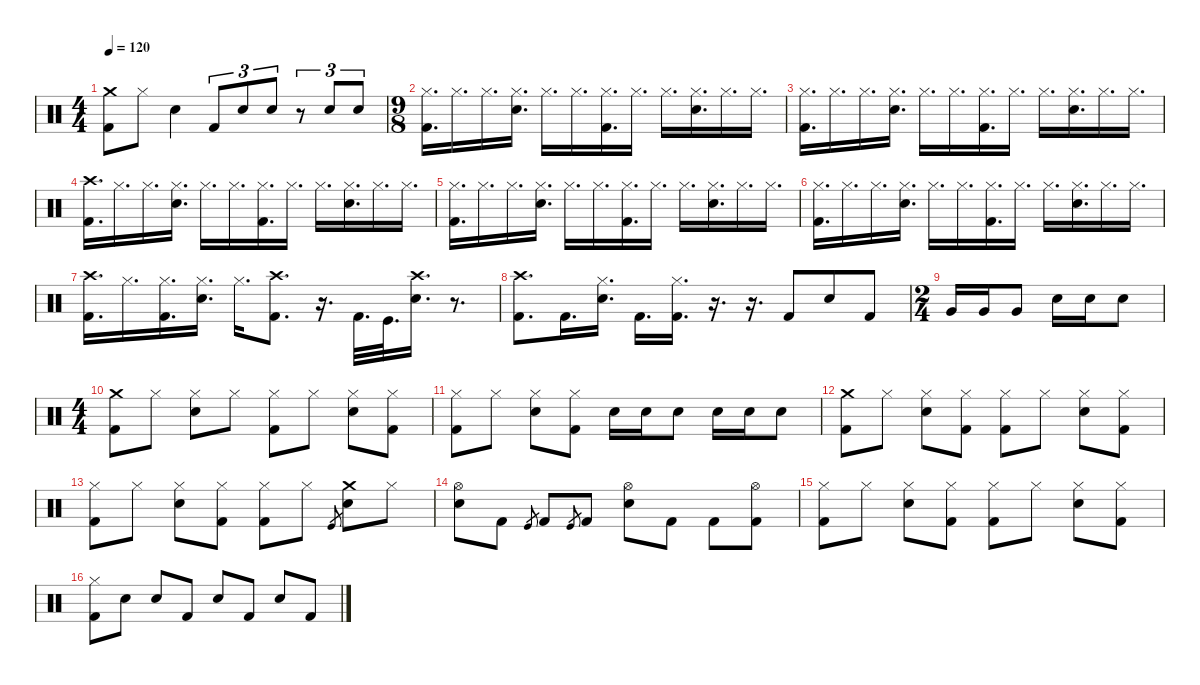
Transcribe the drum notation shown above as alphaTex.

\defaultSystemsLayout 4
\hideDynamics
\bracketExtendMode nobrackets
\singleTrackTrackNamePolicy hidden
\multiTrackTrackNamePolicy hidden
\otherSystemsTrackNameOrientation horizontal
\track ("Ulrich" "drm.") {instrument percussion}
\staff {score}
\articulation defaults
\ts (4 4)
\tempo 120
\clef neutral
\ks c
("Crash medium (hit)" "Kick (hit) 2").8{dy f beam Down} "Hi-Hat (closed)".8{beam Down} "Snare (hit) 2".4{beam Down} "Kick (hit) 2".8{tu (3 2) beam Up} "Snare (hit) 2".8{tu (3 2) beam Up} "Snare (hit) 2".8{tu (3 2) beam Up} r.8{tu (3 2) beam Up} "Snare (hit) 2".8{tu (3 2) beam Down} "Snare (hit) 2".8{tu (3 2) beam Down} |
\ts (9 8)
("Hi-Hat (closed)" "Kick (hit) 2").16{d beam Down} "Hi-Hat (closed)".16{d beam Down} "Hi-Hat (closed)".16{d beam Down} ("Hi-Hat (closed)" "Snare (hit) 2").16{d beam Down} "Hi-Hat (closed)".16{d beam Down} "Hi-Hat (closed)".16{d beam Down} ("Hi-Hat (closed)" "Kick (hit) 2").16{d beam Down} "Hi-Hat (closed)".16{d beam Down} "Hi-Hat (closed)".16{d beam Down} ("Hi-Hat (closed)" "Snare (hit) 2").16{d beam Down} "Hi-Hat (closed)".16{d beam Down} "Hi-Hat (closed)".16{d beam Down} |
("Hi-Hat (closed)" "Kick (hit) 2").16{d beam Down} "Hi-Hat (closed)".16{d beam Down} "Hi-Hat (closed)".16{d beam Down} ("Hi-Hat (closed)" "Snare (hit) 2").16{d beam Down} "Hi-Hat (closed)".16{d beam Down} "Hi-Hat (closed)".16{d beam Down} ("Hi-Hat (closed)" "Kick (hit) 2").16{d beam Down} "Hi-Hat (closed)".16{d beam Down} "Hi-Hat (closed)".16{d beam Down} ("Hi-Hat (closed)" "Snare (hit) 2").16{d beam Down} "Hi-Hat (closed)".16{d beam Down} "Hi-Hat (closed)".16{d beam Down} |
("Crash high (hit)" "Kick (hit) 2").16{d beam Down} "Hi-Hat (closed)".16{d beam Down} "Hi-Hat (closed)".16{d beam Down} ("Hi-Hat (closed)" "Snare (hit) 2").16{d beam Down} "Hi-Hat (closed)".16{d beam Down} "Hi-Hat (closed)".16{d beam Down} ("Hi-Hat (closed)" "Kick (hit) 2").16{d beam Down} "Hi-Hat (closed)".16{d beam Down} "Hi-Hat (closed)".16{d beam Down} ("Hi-Hat (closed)" "Snare (hit) 2").16{d beam Down} "Hi-Hat (closed)".16{d beam Down} "Hi-Hat (closed)".16{d beam Down} |
("Hi-Hat (closed)" "Kick (hit) 2").16{d beam Down} "Hi-Hat (closed)".16{d beam Down} "Hi-Hat (closed)".16{d beam Down} ("Hi-Hat (closed)" "Snare (hit) 2").16{d beam Down} "Hi-Hat (closed)".16{d beam Down} "Hi-Hat (closed)".16{d beam Down} ("Hi-Hat (closed)" "Kick (hit) 2").16{d beam Down} "Hi-Hat (closed)".16{d beam Down} "Hi-Hat (closed)".16{d beam Down} ("Hi-Hat (closed)" "Snare (hit) 2").16{d beam Down} "Hi-Hat (closed)".16{d beam Down} "Hi-Hat (closed)".16{d beam Down} |
("Hi-Hat (closed)" "Kick (hit) 2").16{d beam Down} "Hi-Hat (closed)".16{d beam Down} "Hi-Hat (closed)".16{d beam Down} ("Hi-Hat (closed)" "Snare (hit) 2").16{d beam Down} "Hi-Hat (closed)".16{d beam Down} "Hi-Hat (closed)".16{d beam Down} ("Hi-Hat (closed)" "Kick (hit) 2").16{d beam Down} "Hi-Hat (closed)".16{d beam Down} "Hi-Hat (closed)".16{d beam Down} ("Hi-Hat (closed)" "Snare (hit) 2").16{d beam Down} "Hi-Hat (closed)".16{d beam Down} "Hi-Hat (closed)".16{d beam Down} |
("Crash high (hit)" "Kick (hit) 2").16{d beam Down} "Hi-Hat (closed)".16{d beam Down} ("Hi-Hat (closed)" "Kick (hit) 2").16{d beam Down} ("Hi-Hat (closed)" "Snare (hit) 2").16{d beam Down} "Hi-Hat (closed)".16{d beam Down} ("Crash high (hit)" "Kick (hit) 2").8{d beam Down} r.16{d beam Down} "Kick (hit) 2".32{d beam Down} "Kick (hit)".32{d beam Down} ("Crash high (hit)" "Snare (hit) 2").16{d beam Down} r.8{d beam Down} |
("Crash high (hit)" "Kick (hit) 2").8{d beam Down} "Kick (hit) 2".16{d beam Down} ("Hi-Hat (closed)" "Snare (hit) 2").16{d beam Down} "Kick (hit) 2".16{d beam Down} ("Hi-Hat (closed)" "Kick (hit) 2").16{d beam Down} r.16{d beam Down} r.16{d beam Down} "Kick (hit) 2".8{beam Up} "Snare (hit) 2".8{beam Up} "Kick (hit) 2".8{beam Up} |
\ts (2 4)
"Very Low Tom (hit)".16{beam Up} "Very Low Tom (hit)".16{beam Up} "Very Low Tom (hit)".8{beam Up} "Snare (hit) 2".16{beam Down} "Snare (hit) 2".16{beam Down} "Snare (hit) 2".8{beam Down} |
\ts (4 4)
("Crash medium (hit)" "Kick (hit) 2").8{beam Down} "Hi-Hat (closed)".8{beam Down} ("Hi-Hat (closed)" "Snare (hit) 2").8{beam Down} "Hi-Hat (closed)".8{beam Down} ("Hi-Hat (closed)" "Kick (hit) 2").8{beam Down} "Hi-Hat (closed)".8{beam Down} ("Hi-Hat (closed)" "Snare (hit) 2").8{beam Down} ("Hi-Hat (closed)" "Kick (hit) 2").8{beam Down} |
("Hi-Hat (closed)" "Kick (hit) 2").8{beam Down} "Hi-Hat (closed)".8{beam Down} ("Hi-Hat (closed)" "Snare (hit) 2").8{beam Down} ("Hi-Hat (closed)" "Kick (hit) 2").8{beam Down} "Snare (hit) 2".16{beam Down} "Snare (hit) 2".16{beam Down} "Snare (hit) 2".8{beam Down} "Snare (hit) 2".16{beam Down} "Snare (hit) 2".16{beam Down} "Snare (hit) 2".8{beam Down} |
("Crash medium (hit)" "Kick (hit) 2").8{beam Down} "Hi-Hat (closed)".8{beam Down} ("Hi-Hat (closed)" "Snare (hit) 2").8{beam Down} ("Hi-Hat (closed)" "Kick (hit) 2").8{beam Down} ("Hi-Hat (closed)" "Kick (hit) 2").8{beam Down} "Hi-Hat (closed)".8{beam Down} ("Hi-Hat (closed)" "Snare (hit) 2").8{beam Down} ("Hi-Hat (closed)" "Kick (hit) 2").8{beam Down} |
("Hi-Hat (closed)" "Kick (hit) 2").8{beam Down} "Hi-Hat (closed)".8{beam Down} ("Hi-Hat (closed)" "Snare (hit) 2").8{beam Down} ("Hi-Hat (closed)" "Kick (hit) 2").8{beam Down} ("Hi-Hat (closed)" "Kick (hit) 2").8{beam Down} "Hi-Hat (closed)".8{beam Down} "Kick (hit)".8{gr dy ff beam Up} ("Crash medium (hit)" "Snare (hit) 2").8{dy f beam Down} "Hi-Hat (closed)".8{beam Down} |
("Hi-Hat (open)" "Snare (hit) 2").8{beam Down} "Kick (hit) 2".8{beam Down} "Kick (hit)".8{gr dy ff beam Up} "Kick (hit) 2".8{dy f beam Up} "Kick (hit)".8{gr dy ff beam Up} "Kick (hit) 2".8{dy f beam Up} ("Hi-Hat (open)" "Snare (hit) 2").8{beam Down} "Kick (hit) 2".8{beam Down} "Kick (hit) 2".8{beam Down} ("Hi-Hat (open)" "Kick (hit) 2").8{beam Down} |
("Hi-Hat (closed)" "Kick (hit) 2").8{beam Down} "Hi-Hat (closed)".8{beam Down} ("Hi-Hat (closed)" "Snare (hit) 2").8{beam Down} ("Hi-Hat (closed)" "Kick (hit) 2").8{beam Down} ("Hi-Hat (closed)" "Kick (hit) 2").8{beam Down} "Hi-Hat (closed)".8{beam Down} ("Hi-Hat (closed)" "Snare (hit) 2").8{beam Down} ("Hi-Hat (closed)" "Kick (hit) 2").8{beam Down} |
("Hi-Hat (closed)" "Kick (hit) 2").8{beam Down} "Snare (hit) 2".8{beam Down} "Snare (hit) 2".8{beam Up} "Kick (hit) 2".8{beam Up} "Snare (hit) 2".8{beam Up} "Kick (hit) 2".8{beam Up} "Snare (hit) 2".8{beam Up} "Kick (hit) 2".8{beam Up}
